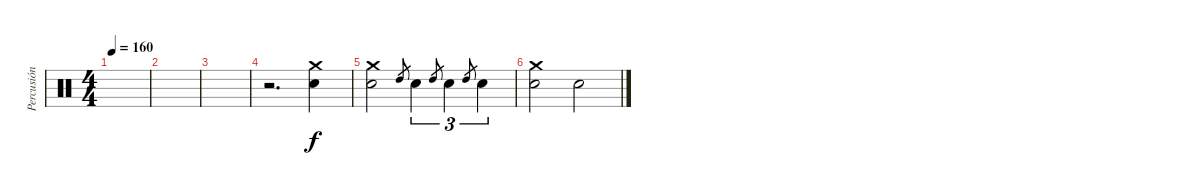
\track ("Percusión" "Percusión") {instrument percussion}
\staff {score}
\articulation defaults
\ts (4 4)
\tempo 160
\clef neutral
\ks c
|
|
|
r.2{d} ("Crash medium (hit)" "Snare (hit) 2").4 |
("Crash medium (hit)" "Snare (hit) 2").2 "High Tom (hit)".8{gr} "Snare (hit) 2".4{tu (3 2)} "High Tom (hit)".8{gr} "Snare (hit) 2".4{tu (3 2)} "High Tom (hit)".8{gr} "Snare (hit) 2".4{tu (3 2)} |
("Snare (hit) 2" "Crash medium (hit)").2 "Snare (hit) 2".2
